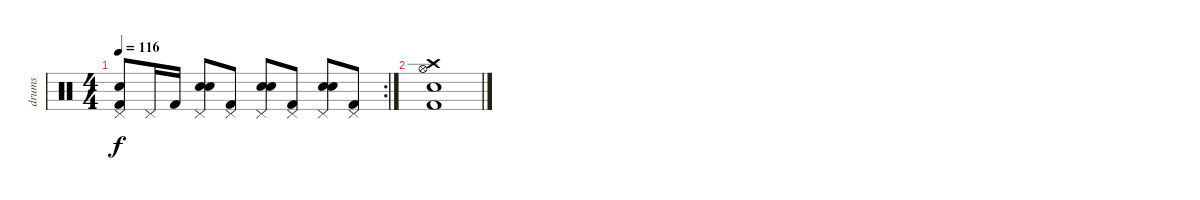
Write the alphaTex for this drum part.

\track ("drums" "drums") {instrument percussion}
\staff {score}
\articulation defaults
\rc 2
\ts (4 4)
\tempo 116
\clef neutral
\ks c
("Hand Clap (hit)" "Pedal Hi-Hat (hit)" "Kick (hit) 2").8{dy f} "Pedal Hi-Hat (hit)".16 "Kick (hit) 2".16 ("Hand Clap (hit)" "Pedal Hi-Hat (hit)" "Snare (hit) 2").8 ("Pedal Hi-Hat (hit)" "Kick (hit) 2").8 ("Hand Clap (hit)" "Pedal Hi-Hat (hit)" "Snare (hit) 2").8 ("Pedal Hi-Hat (hit)" "Kick (hit) 2").8 ("Hand Clap (hit)" "Pedal Hi-Hat (hit)" "Snare (hit) 2").8 ("Pedal Hi-Hat (hit)" "Kick (hit) 2").8 |
("Crash high (hit)" "Hi-Hat (open)" "Snare (hit) 2" "Kick (hit) 2").1
